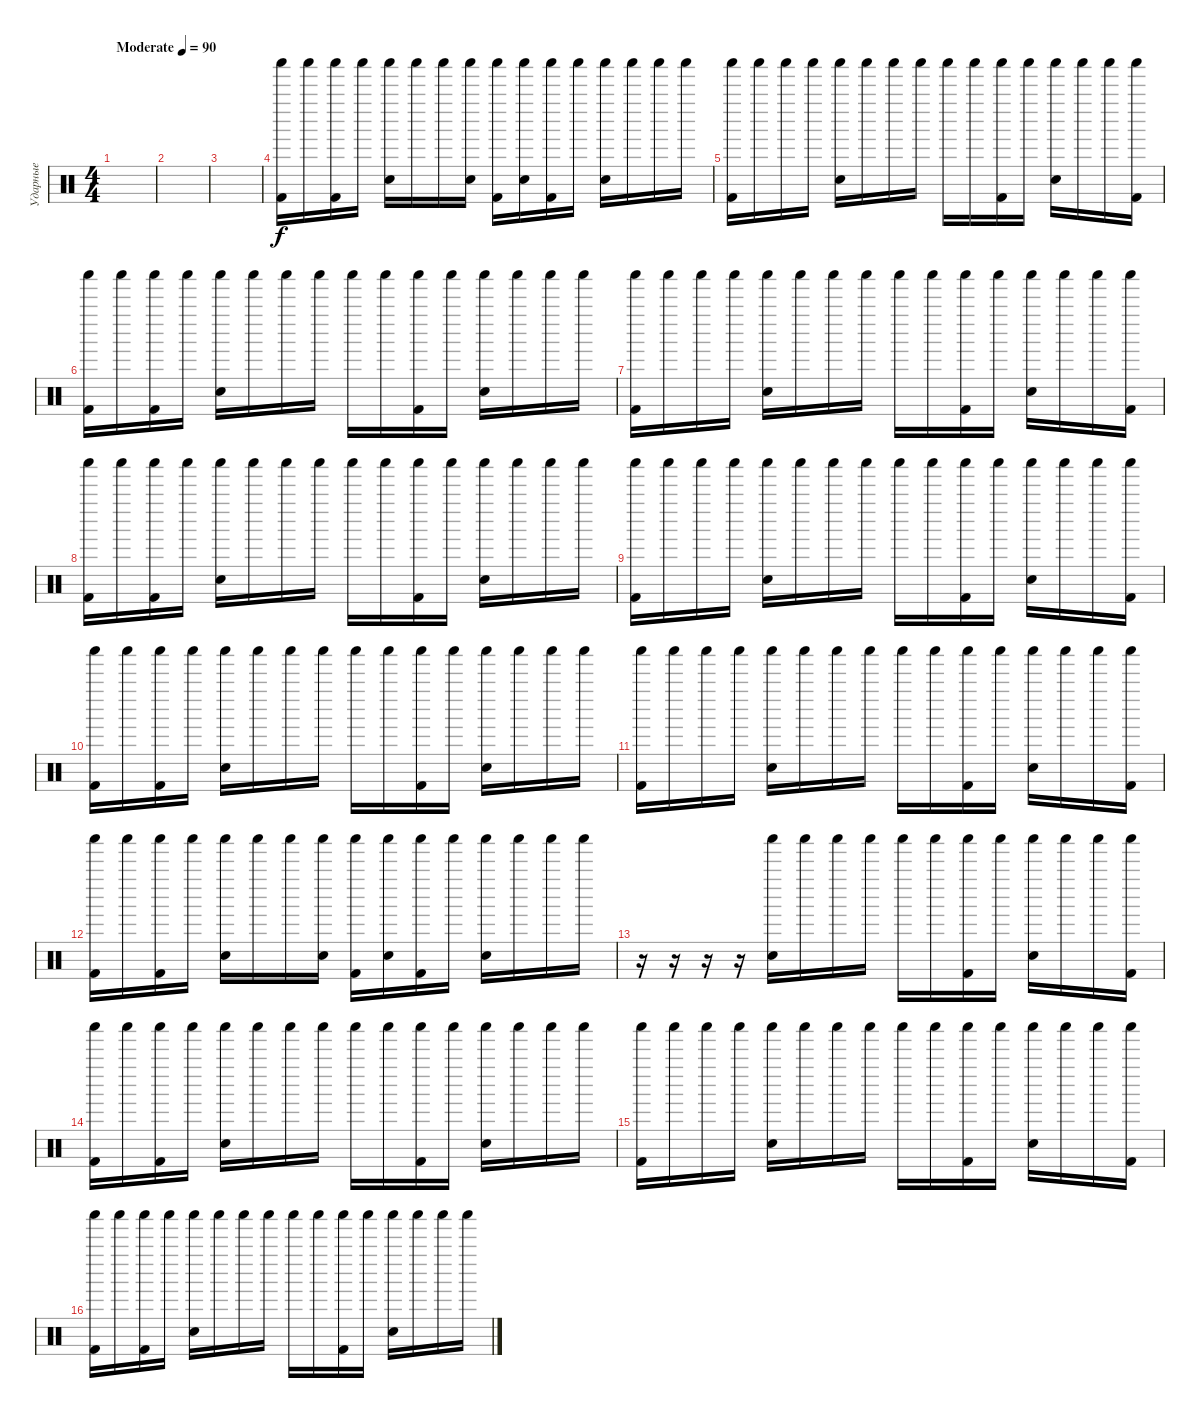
\track ("Ударные" "Ударные") {instrument percussion}
\staff {score}
\articulation defaults
\ts (4 4)
\tempo (90 "Moderate")
\clef neutral
\ks c
|
|
|
("Shaker (hit)" "Kick (hit) 2").16{volume 5} "Shaker (hit)".16 ("Shaker (hit)" "Kick (hit) 2").16 "Shaker (hit)".16 ("Shaker (hit)" "Electric Snare (hit)").16{volume 8} "Shaker (hit)".16 "Shaker (hit)".16 ("Shaker (hit)" "Electric Snare (hit)").16 ("Shaker (hit)" "Kick (hit) 2").16 ("Shaker (hit)" "Electric Snare (hit)").16 ("Shaker (hit)" "Kick (hit) 2").16 "Shaker (hit)".16 ("Shaker (hit)" "Electric Snare (hit)").16{volume 11} "Shaker (hit)".16 "Shaker (hit)".16 "Shaker (hit)".16 |
("Shaker (hit)" "Kick (hit) 2").16 "Shaker (hit)".16 "Shaker (hit)".16 "Shaker (hit)".16 ("Shaker (hit)" "Electric Snare (hit)").16 "Shaker (hit)".16 "Shaker (hit)".16 "Shaker (hit)".16 "Shaker (hit)".16 "Shaker (hit)".16 ("Shaker (hit)" "Kick (hit) 2").16 "Shaker (hit)".16 ("Shaker (hit)" "Electric Snare (hit)").16 "Shaker (hit)".16 "Shaker (hit)".16 ("Shaker (hit)" "Kick (hit) 2").16 |
("Shaker (hit)" "Kick (hit) 2").16 "Shaker (hit)".16 ("Shaker (hit)" "Kick (hit) 2").16 "Shaker (hit)".16 ("Shaker (hit)" "Electric Snare (hit)").16 "Shaker (hit)".16 "Shaker (hit)".16 "Shaker (hit)".16 "Shaker (hit)".16 "Shaker (hit)".16 ("Shaker (hit)" "Kick (hit) 2").16 "Shaker (hit)".16 ("Shaker (hit)" "Electric Snare (hit)").16 "Shaker (hit)".16 "Shaker (hit)".16 "Shaker (hit)".16 |
("Shaker (hit)" "Kick (hit) 2").16 "Shaker (hit)".16 "Shaker (hit)".16 "Shaker (hit)".16 ("Shaker (hit)" "Electric Snare (hit)").16 "Shaker (hit)".16 "Shaker (hit)".16 "Shaker (hit)".16 "Shaker (hit)".16 "Shaker (hit)".16 ("Shaker (hit)" "Kick (hit) 2").16 "Shaker (hit)".16 ("Shaker (hit)" "Electric Snare (hit)").16 "Shaker (hit)".16 "Shaker (hit)".16 ("Shaker (hit)" "Kick (hit) 2").16 |
("Shaker (hit)" "Kick (hit) 2").16 "Shaker (hit)".16 ("Shaker (hit)" "Kick (hit) 2").16 "Shaker (hit)".16 ("Shaker (hit)" "Electric Snare (hit)").16 "Shaker (hit)".16 "Shaker (hit)".16 "Shaker (hit)".16 "Shaker (hit)".16 "Shaker (hit)".16 ("Shaker (hit)" "Kick (hit) 2").16 "Shaker (hit)".16 ("Shaker (hit)" "Electric Snare (hit)").16 "Shaker (hit)".16 "Shaker (hit)".16 "Shaker (hit)".16 |
("Shaker (hit)" "Kick (hit) 2").16 "Shaker (hit)".16 "Shaker (hit)".16 "Shaker (hit)".16 ("Shaker (hit)" "Electric Snare (hit)").16 "Shaker (hit)".16 "Shaker (hit)".16 "Shaker (hit)".16 "Shaker (hit)".16 "Shaker (hit)".16 ("Shaker (hit)" "Kick (hit) 2").16 "Shaker (hit)".16 ("Shaker (hit)" "Electric Snare (hit)").16 "Shaker (hit)".16 "Shaker (hit)".16 ("Shaker (hit)" "Kick (hit) 2").16 |
("Shaker (hit)" "Kick (hit) 2").16 "Shaker (hit)".16 ("Shaker (hit)" "Kick (hit) 2").16 "Shaker (hit)".16 ("Shaker (hit)" "Electric Snare (hit)").16 "Shaker (hit)".16 "Shaker (hit)".16 "Shaker (hit)".16 "Shaker (hit)".16 "Shaker (hit)".16 ("Shaker (hit)" "Kick (hit) 2").16 "Shaker (hit)".16 ("Shaker (hit)" "Electric Snare (hit)").16 "Shaker (hit)".16 "Shaker (hit)".16 "Shaker (hit)".16 |
("Shaker (hit)" "Kick (hit) 2").16 "Shaker (hit)".16 "Shaker (hit)".16 "Shaker (hit)".16 ("Shaker (hit)" "Electric Snare (hit)").16 "Shaker (hit)".16 "Shaker (hit)".16 "Shaker (hit)".16 "Shaker (hit)".16 "Shaker (hit)".16 ("Shaker (hit)" "Kick (hit) 2").16 "Shaker (hit)".16 ("Shaker (hit)" "Electric Snare (hit)").16 "Shaker (hit)".16 "Shaker (hit)".16 ("Shaker (hit)" "Kick (hit) 2").16 |
("Shaker (hit)" "Kick (hit) 2").16 "Shaker (hit)".16 ("Shaker (hit)" "Kick (hit) 2").16 "Shaker (hit)".16 ("Shaker (hit)" "Electric Snare (hit)").16 "Shaker (hit)".16 "Shaker (hit)".16 ("Shaker (hit)" "Electric Snare (hit)").16 ("Shaker (hit)" "Kick (hit) 2").16 ("Shaker (hit)" "Electric Snare (hit)").16 ("Shaker (hit)" "Kick (hit) 2").16 "Shaker (hit)".16 ("Shaker (hit)" "Electric Snare (hit)").16 "Shaker (hit)".16 "Shaker (hit)".16 "Shaker (hit)".16 |
r.16 r.16 r.16 r.16 ("Shaker (hit)" "Electric Snare (hit)").16 "Shaker (hit)".16 "Shaker (hit)".16 "Shaker (hit)".16 "Shaker (hit)".16 "Shaker (hit)".16 ("Shaker (hit)" "Kick (hit) 2").16 "Shaker (hit)".16 ("Shaker (hit)" "Electric Snare (hit)").16 "Shaker (hit)".16 "Shaker (hit)".16 ("Shaker (hit)" "Kick (hit) 2").16 |
("Shaker (hit)" "Kick (hit) 2").16 "Shaker (hit)".16 ("Shaker (hit)" "Kick (hit) 2").16 "Shaker (hit)".16 ("Shaker (hit)" "Electric Snare (hit)").16 "Shaker (hit)".16 "Shaker (hit)".16 "Shaker (hit)".16 "Shaker (hit)".16 "Shaker (hit)".16 ("Shaker (hit)" "Kick (hit) 2").16 "Shaker (hit)".16 ("Shaker (hit)" "Electric Snare (hit)").16 "Shaker (hit)".16 "Shaker (hit)".16 "Shaker (hit)".16 |
("Shaker (hit)" "Kick (hit) 2").16 "Shaker (hit)".16 "Shaker (hit)".16 "Shaker (hit)".16 ("Shaker (hit)" "Electric Snare (hit)").16 "Shaker (hit)".16 "Shaker (hit)".16 "Shaker (hit)".16 "Shaker (hit)".16 "Shaker (hit)".16 ("Shaker (hit)" "Kick (hit) 2").16 "Shaker (hit)".16 ("Shaker (hit)" "Electric Snare (hit)").16 "Shaker (hit)".16 "Shaker (hit)".16 ("Shaker (hit)" "Kick (hit) 2").16 |
("Shaker (hit)" "Kick (hit) 2").16 "Shaker (hit)".16 ("Shaker (hit)" "Kick (hit) 2").16 "Shaker (hit)".16 ("Shaker (hit)" "Electric Snare (hit)").16 "Shaker (hit)".16 "Shaker (hit)".16 "Shaker (hit)".16 "Shaker (hit)".16 "Shaker (hit)".16 ("Shaker (hit)" "Kick (hit) 2").16 "Shaker (hit)".16 ("Shaker (hit)" "Electric Snare (hit)").16 "Shaker (hit)".16 "Shaker (hit)".16 "Shaker (hit)".16
